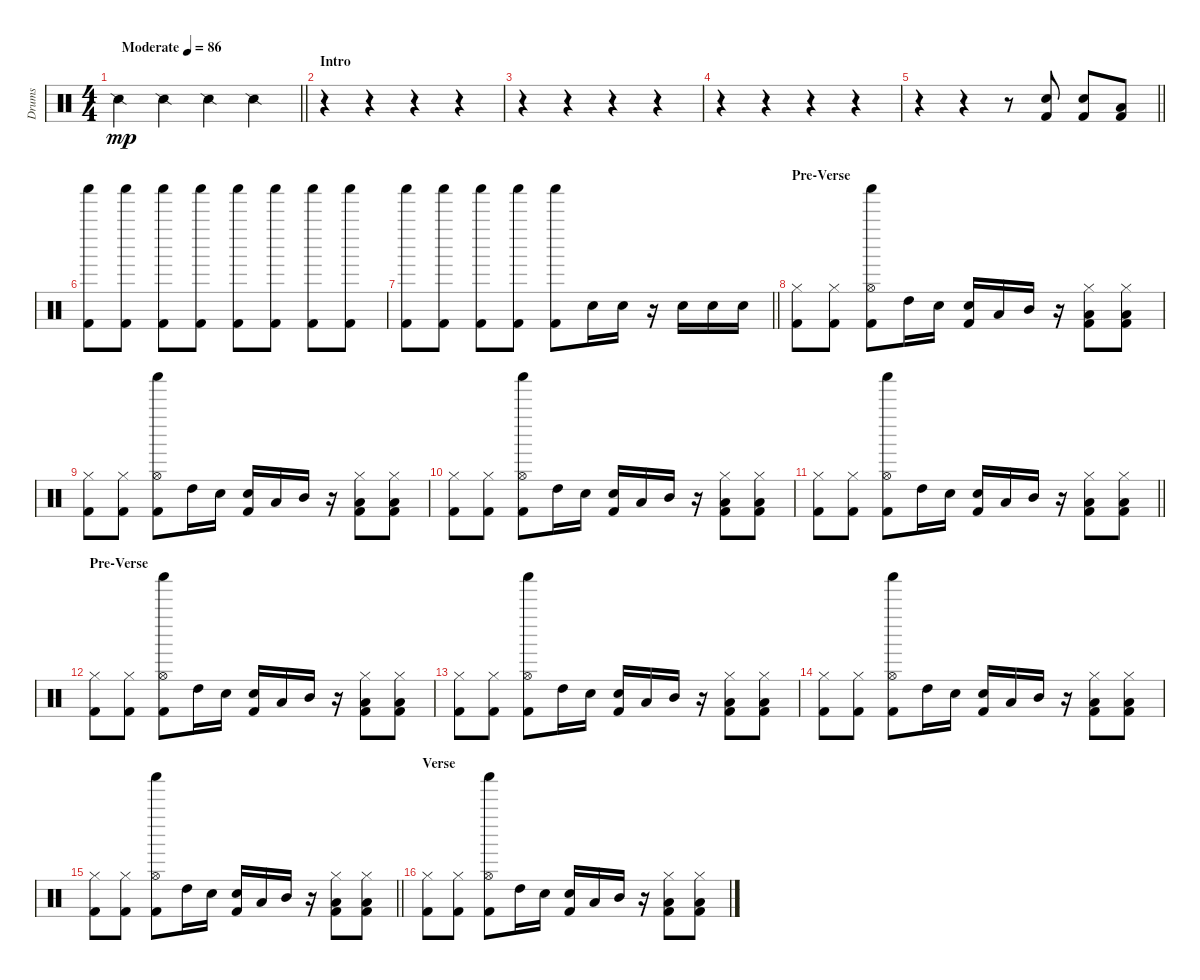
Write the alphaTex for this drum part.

\track ("Drums" "Drums") {instrument percussion}
\staff
\articulation defaults
\ts (4 4)
\tempo (86 "Moderate")
\clef neutral
\barLineRight lightlight
\ks c "Snare (side stick) 2".4{dy mp} "Snare (side stick) 2".4 "Snare (side stick) 2".4 "Snare (side stick) 2".4
|
\section ("" "Intro")
r.4 r.4 r.4 r.4 |
r.4 r.4 r.4 r.4 |
r.4 r.4 r.4 r.4 |
\barLineRight lightlight
r.4 r.4 r.8 ("Electric Snare (hit)" "Kick (hit) 2").8 ("Electric Snare (hit)" "Kick (hit) 2").8 ("Low Tom (hit)" "Kick (hit) 2").8 |
("Shaker (hit)" "Kick (hit) 2").8 ("Shaker (hit)" "Kick (hit) 2").8 ("Shaker (hit)" "Kick (hit) 2").8 ("Shaker (hit)" "Kick (hit) 2").8 ("Shaker (hit)" "Kick (hit) 2").8 ("Shaker (hit)" "Kick (hit) 2").8 ("Shaker (hit)" "Kick (hit) 2").8 ("Shaker (hit)" "Kick (hit) 2").8 |
\barLineRight lightlight
("Shaker (hit)" "Kick (hit) 2").8 ("Shaker (hit)" "Kick (hit) 2").8 ("Shaker (hit)" "Kick (hit) 2").8 ("Shaker (hit)" "Kick (hit) 2").8 ("Shaker (hit)" "Kick (hit) 2").8 "Electric Snare (hit)".16 "Electric Snare (hit)".16 r.16 "Electric Snare (hit)".16 "Electric Snare (hit)".16 "Electric Snare (hit)".16 |
\section ("" "Pre-Verse")
("Hi-Hat (closed)" "Kick (hit) 2").8 ("Hi-Hat (closed)" "Kick (hit) 2").8 ("Hi-Hat (open)" "Shaker (hit)" "Kick (hit) 2").8 "High Tom (hit)".16 "Electric Snare (hit)".16 ("Electric Snare (hit)" "Kick (hit) 2").16 "Low Tom (hit)".16 "Mid Tom (hit)".16 r.16 ("Hi-Hat (closed)" "Low Tom (hit)" "Kick (hit) 2").8 ("Hi-Hat (closed)" "Low Tom (hit)" "Kick (hit) 2").8 |
("Hi-Hat (closed)" "Kick (hit) 2").8 ("Hi-Hat (closed)" "Kick (hit) 2").8 ("Hi-Hat (open)" "Shaker (hit)" "Kick (hit) 2").8 "High Tom (hit)".16 "Electric Snare (hit)".16 ("Electric Snare (hit)" "Kick (hit) 2").16 "Low Tom (hit)".16 "Mid Tom (hit)".16 r.16 ("Hi-Hat (closed)" "Low Tom (hit)" "Kick (hit) 2").8 ("Hi-Hat (closed)" "Low Tom (hit)" "Kick (hit) 2").8 |
("Hi-Hat (closed)" "Kick (hit) 2").8 ("Hi-Hat (closed)" "Kick (hit) 2").8 ("Hi-Hat (open)" "Shaker (hit)" "Kick (hit) 2").8 "High Tom (hit)".16 "Electric Snare (hit)".16 ("Electric Snare (hit)" "Kick (hit) 2").16 "Low Tom (hit)".16 "Mid Tom (hit)".16 r.16 ("Hi-Hat (closed)" "Low Tom (hit)" "Kick (hit) 2").8 ("Hi-Hat (closed)" "Low Tom (hit)" "Kick (hit) 2").8 |
\barLineRight lightlight
("Hi-Hat (closed)" "Kick (hit) 2").8 ("Hi-Hat (closed)" "Kick (hit) 2").8 ("Hi-Hat (open)" "Shaker (hit)" "Kick (hit) 2").8 "High Tom (hit)".16 "Electric Snare (hit)".16 ("Electric Snare (hit)" "Kick (hit) 2").16 "Low Tom (hit)".16 "Mid Tom (hit)".16 r.16 ("Hi-Hat (closed)" "Low Tom (hit)" "Kick (hit) 2").8 ("Hi-Hat (closed)" "Low Tom (hit)" "Kick (hit) 2").8 |
\section ("" "Pre-Verse")
("Hi-Hat (closed)" "Kick (hit) 2").8 ("Hi-Hat (closed)" "Kick (hit) 2").8 ("Hi-Hat (open)" "Shaker (hit)" "Kick (hit) 2").8 "High Tom (hit)".16 "Electric Snare (hit)".16 ("Electric Snare (hit)" "Kick (hit) 2").16 "Low Tom (hit)".16 "Mid Tom (hit)".16 r.16 ("Hi-Hat (closed)" "Low Tom (hit)" "Kick (hit) 2").8 ("Hi-Hat (closed)" "Low Tom (hit)" "Kick (hit) 2").8 |
("Hi-Hat (closed)" "Kick (hit) 2").8 ("Hi-Hat (closed)" "Kick (hit) 2").8 ("Hi-Hat (open)" "Shaker (hit)" "Kick (hit) 2").8 "High Tom (hit)".16 "Electric Snare (hit)".16 ("Electric Snare (hit)" "Kick (hit) 2").16 "Low Tom (hit)".16 "Mid Tom (hit)".16 r.16 ("Hi-Hat (closed)" "Low Tom (hit)" "Kick (hit) 2").8 ("Hi-Hat (closed)" "Low Tom (hit)" "Kick (hit) 2").8 |
("Hi-Hat (closed)" "Kick (hit) 2").8 ("Hi-Hat (closed)" "Kick (hit) 2").8 ("Hi-Hat (open)" "Shaker (hit)" "Kick (hit) 2").8 "High Tom (hit)".16 "Electric Snare (hit)".16 ("Electric Snare (hit)" "Kick (hit) 2").16 "Low Tom (hit)".16 "Mid Tom (hit)".16 r.16 ("Hi-Hat (closed)" "Low Tom (hit)" "Kick (hit) 2").8 ("Hi-Hat (closed)" "Low Tom (hit)" "Kick (hit) 2").8 |
\barLineRight lightlight
("Hi-Hat (closed)" "Kick (hit) 2").8 ("Hi-Hat (closed)" "Kick (hit) 2").8 ("Hi-Hat (open)" "Shaker (hit)" "Kick (hit) 2").8 "High Tom (hit)".16 "Electric Snare (hit)".16 ("Electric Snare (hit)" "Kick (hit) 2").16 "Low Tom (hit)".16 "Mid Tom (hit)".16 r.16 ("Hi-Hat (closed)" "Low Tom (hit)" "Kick (hit) 2").8 ("Hi-Hat (closed)" "Low Tom (hit)" "Kick (hit) 2").8 |
\section ("" "Verse")
("Hi-Hat (closed)" "Kick (hit) 2").8 ("Hi-Hat (closed)" "Kick (hit) 2").8 ("Hi-Hat (open)" "Shaker (hit)" "Kick (hit) 2").8 "High Tom (hit)".16 "Electric Snare (hit)".16 ("Electric Snare (hit)" "Kick (hit) 2").16 "Low Tom (hit)".16 "Mid Tom (hit)".16 r.16 ("Hi-Hat (closed)" "Low Tom (hit)" "Kick (hit) 2").8 ("Hi-Hat (closed)" "Low Tom (hit)" "Kick (hit) 2").8
